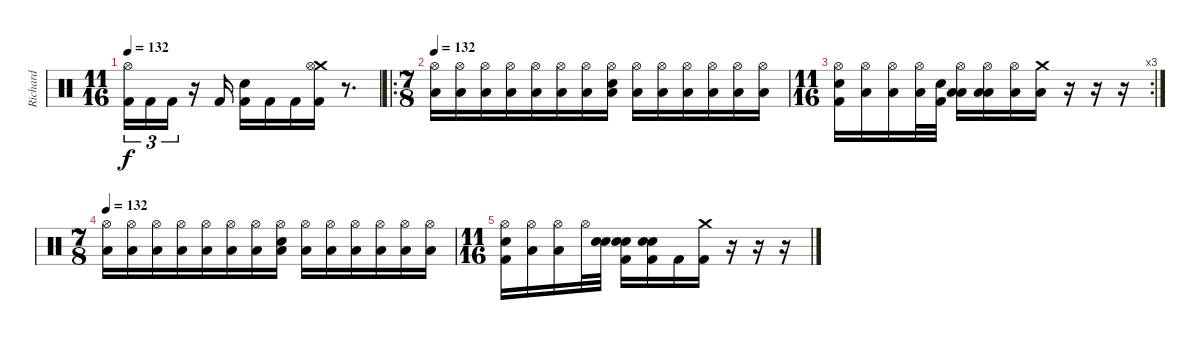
\track ("Richard" "Richard") {instrument percussion}
\staff {score}
\articulation defaults
\ts (11 16)
\tempo 132
\clef neutral
\ks c
("Hi-Hat (open)" "Kick (hit) 2").16{tu (3 2) dy f} "Kick (hit) 2".16{tu (3 2)} "Kick (hit) 2".16{tu (3 2)} r.16 "Kick (hit) 2".16 ("Electric Snare (hit)" "Kick (hit) 2").16 "Kick (hit) 2".16 "Kick (hit) 2".16 ("Crash medium (hit)" "Hi-Hat (open)" "Kick (hit) 2").16 r.8{d} |
\ro
\ts (7 8)
\tempo 132
("Hi-Hat (open)" "Low Floor Tom (hit)").16 ("Hi-Hat (open)" "Low Floor Tom (hit)").16 ("Hi-Hat (open)" "Low Floor Tom (hit)").16 ("Hi-Hat (open)" "Low Floor Tom (hit)").16 ("Hi-Hat (open)" "Low Floor Tom (hit)").16 ("Hi-Hat (open)" "Low Floor Tom (hit)").16 ("Hi-Hat (open)" "Low Floor Tom (hit)").16 ("Hi-Hat (open)" "Electric Snare (hit)" "Low Floor Tom (hit)").16 ("Hi-Hat (open)" "Low Floor Tom (hit)").16 ("Hi-Hat (open)" "Low Floor Tom (hit)").16 ("Hi-Hat (open)" "Low Floor Tom (hit)").16 ("Hi-Hat (open)" "Low Floor Tom (hit)").16 ("Hi-Hat (open)" "Low Floor Tom (hit)").16 ("Hi-Hat (open)" "Low Floor Tom (hit)").16 |
\rc 3
\ts (11 16)
("Hi-Hat (open)" "Electric Snare (hit)" "Kick (hit) 2").16 ("Hi-Hat (open)" "Low Floor Tom (hit)").16 ("Hi-Hat (open)" "Low Floor Tom (hit)").16 ("Hi-Hat (open)" "Low Floor Tom (hit)").32 ("Kick (hit) 2" "Electric Snare (hit)").32 ("Hi-Hat (open)" "Low Tom (hit)" "Low Floor Tom (hit)").16 ("Hi-Hat (open)" "Low Tom (hit)" "Low Floor Tom (hit)").16 ("Hi-Hat (open)" "Low Floor Tom (hit)").16 ("Crash medium (hit)" "Low Floor Tom (hit)").16 r.16 r.16 r.16 |
\ts (7 8)
\tempo 132
("Hi-Hat (open)" "Low Floor Tom (hit)").16 ("Hi-Hat (open)" "Low Floor Tom (hit)").16 ("Hi-Hat (open)" "Low Floor Tom (hit)").16 ("Hi-Hat (open)" "Low Floor Tom (hit)").16 ("Hi-Hat (open)" "Low Floor Tom (hit)").16 ("Hi-Hat (open)" "Low Floor Tom (hit)").16 ("Hi-Hat (open)" "Low Floor Tom (hit)").16 ("Hi-Hat (open)" "Electric Snare (hit)" "Low Floor Tom (hit)").16 ("Hi-Hat (open)" "Low Floor Tom (hit)").16 ("Hi-Hat (open)" "Low Floor Tom (hit)").16 ("Hi-Hat (open)" "Low Floor Tom (hit)").16 ("Hi-Hat (open)" "Low Floor Tom (hit)").16 ("Hi-Hat (open)" "Low Floor Tom (hit)").16 ("Hi-Hat (open)" "Low Floor Tom (hit)").16 |
\ts (11 16)
("Hi-Hat (open)" "Electric Snare (hit)" "Kick (hit) 2").16 ("Hi-Hat (open)" "Low Floor Tom (hit)").16 ("Hi-Hat (open)" "Low Floor Tom (hit)").16 "Hi-Hat (open)".32 ("Snare (hit) 2" "Electric Snare (hit)").32 ("Electric Snare (hit)" "Snare (hit) 2" "Kick (hit) 2").16 ("Snare (hit) 2" "Electric Snare (hit)" "Kick (hit) 2").16 "Kick (hit) 2".16 ("Crash medium (hit)" "Kick (hit) 2").16 r.16 r.16 r.16
